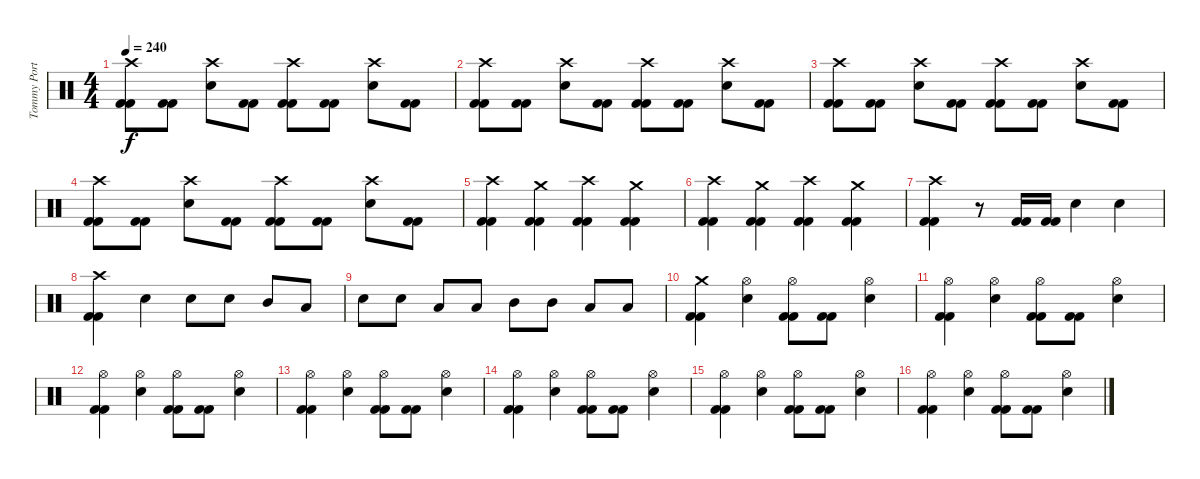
\track ("Tommy Portimo " "Tommy Port") {instrument percussion}
\staff {score}
\articulation defaults
\ts (4 4)
\tempo 240
\clef neutral
\ks c
("Crash high (hit)" "Kick (hit) 2" "Kick (hit) 2").8{dy f} ("Kick (hit) 2" "Kick (hit) 2").8 ("Crash high (hit)" "Electric Snare (hit)").8 ("Kick (hit) 2" "Kick (hit) 2").8 ("Crash high (hit)" "Kick (hit) 2" "Kick (hit) 2").8 ("Kick (hit) 2" "Kick (hit) 2").8 ("Crash high (hit)" "Electric Snare (hit)").8 ("Kick (hit) 2" "Kick (hit) 2").8 |
("Crash high (hit)" "Kick (hit) 2" "Kick (hit) 2").8 ("Kick (hit) 2" "Kick (hit) 2").8 ("Crash high (hit)" "Electric Snare (hit)").8 ("Kick (hit) 2" "Kick (hit) 2").8 ("Crash high (hit)" "Kick (hit) 2" "Kick (hit) 2").8 ("Kick (hit) 2" "Kick (hit) 2").8 ("Crash high (hit)" "Electric Snare (hit)").8 ("Kick (hit) 2" "Kick (hit) 2").8 |
("Crash high (hit)" "Kick (hit) 2" "Kick (hit) 2").8 ("Kick (hit) 2" "Kick (hit) 2").8 ("Crash high (hit)" "Electric Snare (hit)").8 ("Kick (hit) 2" "Kick (hit) 2").8 ("Crash high (hit)" "Kick (hit) 2" "Kick (hit) 2").8 ("Kick (hit) 2" "Kick (hit) 2").8 ("Crash high (hit)" "Electric Snare (hit)").8 ("Kick (hit) 2" "Kick (hit) 2").8 |
("Crash high (hit)" "Kick (hit) 2" "Kick (hit) 2").8 ("Kick (hit) 2" "Kick (hit) 2").8 ("Crash high (hit)" "Electric Snare (hit)").8 ("Kick (hit) 2" "Kick (hit) 2").8 ("Crash high (hit)" "Kick (hit) 2" "Kick (hit) 2").8 ("Kick (hit) 2" "Kick (hit) 2").8 ("Crash high (hit)" "Electric Snare (hit)").8 ("Kick (hit) 2" "Kick (hit) 2").8 |
("Crash high (hit)" "Kick (hit) 2" "Kick (hit) 2").4 ("Crash medium (hit)" "Kick (hit) 2" "Kick (hit) 2").4 ("Crash high (hit)" "Kick (hit) 2" "Kick (hit) 2").4 ("Crash medium (hit)" "Kick (hit) 2" "Kick (hit) 2").4 |
("Crash high (hit)" "Kick (hit) 2" "Kick (hit) 2").4 ("Crash medium (hit)" "Kick (hit) 2" "Kick (hit) 2").4 ("Crash high (hit)" "Kick (hit) 2" "Kick (hit) 2").4 ("Crash medium (hit)" "Kick (hit) 2" "Kick (hit) 2").4 |
("Crash high (hit)" "Kick (hit) 2" "Kick (hit) 2").4 r.8 ("Kick (hit) 2" "Kick (hit) 2").16 ("Kick (hit) 2" "Kick (hit) 2").16 "Electric Snare (hit)".4 "Electric Snare (hit)".4 |
("Crash high (hit)" "Kick (hit) 2" "Kick (hit) 2").4 "Electric Snare (hit)".4 "Electric Snare (hit)".8 "Electric Snare (hit)".8 "Mid Tom (hit)".8 "Low Tom (hit)".8 |
"Electric Snare (hit)".8 "Electric Snare (hit)".8 "Low Tom (hit)".8 "Low Tom (hit)".8 "Mid Tom (hit)".8 "Mid Tom (hit)".8 "Low Floor Tom (hit)".8 "Low Floor Tom (hit)".8 |
("Crash medium (hit)" "Kick (hit) 2" "Kick (hit) 2").4 ("Hi-Hat (open)" "Electric Snare (hit)").4 ("Hi-Hat (open)" "Kick (hit) 2" "Kick (hit) 2").8 ("Kick (hit) 2" "Kick (hit) 2").8 ("Hi-Hat (open)" "Electric Snare (hit)").4 |
("Hi-Hat (open)" "Kick (hit) 2" "Kick (hit) 2").4 ("Hi-Hat (open)" "Electric Snare (hit)").4 ("Hi-Hat (open)" "Kick (hit) 2" "Kick (hit) 2").8 ("Kick (hit) 2" "Kick (hit) 2").8 ("Hi-Hat (open)" "Electric Snare (hit)").4 |
("Hi-Hat (open)" "Kick (hit) 2" "Kick (hit) 2").4 ("Hi-Hat (open)" "Electric Snare (hit)").4 ("Hi-Hat (open)" "Kick (hit) 2" "Kick (hit) 2").8 ("Kick (hit) 2" "Kick (hit) 2").8 ("Hi-Hat (open)" "Electric Snare (hit)").4 |
("Hi-Hat (open)" "Kick (hit) 2" "Kick (hit) 2").4 ("Hi-Hat (open)" "Electric Snare (hit)").4 ("Hi-Hat (open)" "Kick (hit) 2" "Kick (hit) 2").8 ("Kick (hit) 2" "Kick (hit) 2").8 ("Hi-Hat (open)" "Electric Snare (hit)").4 |
("Hi-Hat (open)" "Kick (hit) 2" "Kick (hit) 2").4 ("Hi-Hat (open)" "Electric Snare (hit)").4 ("Hi-Hat (open)" "Kick (hit) 2" "Kick (hit) 2").8 ("Kick (hit) 2" "Kick (hit) 2").8 ("Hi-Hat (open)" "Electric Snare (hit)").4 |
("Hi-Hat (open)" "Kick (hit) 2" "Kick (hit) 2").4 ("Hi-Hat (open)" "Electric Snare (hit)").4 ("Hi-Hat (open)" "Kick (hit) 2" "Kick (hit) 2").8 ("Kick (hit) 2" "Kick (hit) 2").8 ("Hi-Hat (open)" "Electric Snare (hit)").4 |
("Hi-Hat (open)" "Kick (hit) 2" "Kick (hit) 2").4 ("Hi-Hat (open)" "Electric Snare (hit)").4 ("Hi-Hat (open)" "Kick (hit) 2" "Kick (hit) 2").8 ("Kick (hit) 2" "Kick (hit) 2").8 ("Hi-Hat (open)" "Electric Snare (hit)").4
